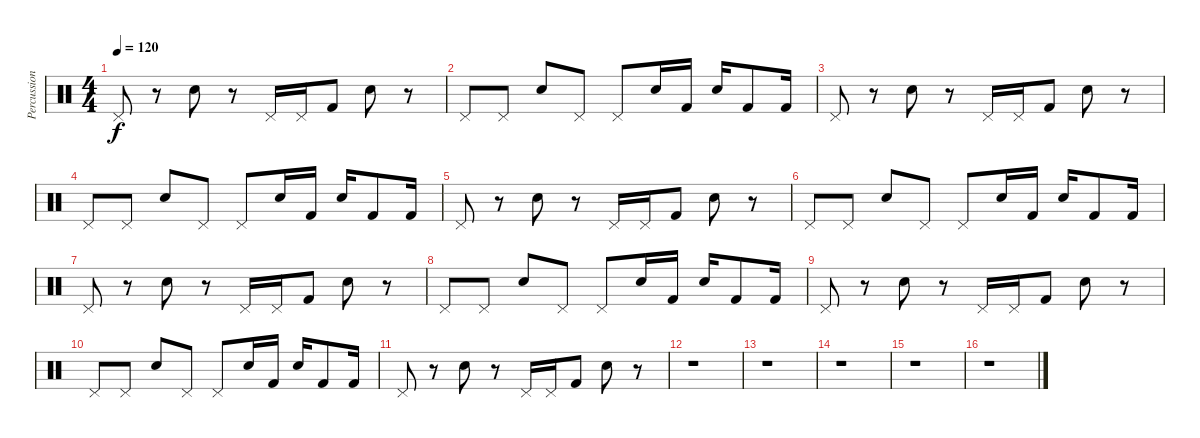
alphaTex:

\track ("Percussion" "Percussion") {instrument percussion}
\staff {score}
\articulation defaults
\ts (4 4)
\tempo 120
\clef neutral
\ks c "Pedal Hi-Hat (hit)".8{dy f}
r.8 "Electric Snare (hit)".8 r.8 "Pedal Hi-Hat (hit)".16 "Pedal Hi-Hat (hit)".16 "Kick (hit) 2".8 "Electric Snare (hit)".8 r.8 |
"Pedal Hi-Hat (hit)".8 "Pedal Hi-Hat (hit)".8 "Electric Snare (hit)".8 "Pedal Hi-Hat (hit)".8 "Pedal Hi-Hat (hit)".8 "Electric Snare (hit)".16 "Kick (hit) 2".16 "Electric Snare (hit)".16 "Kick (hit) 2".8 "Kick (hit) 2".16 |
"Pedal Hi-Hat (hit)".8 r.8 "Electric Snare (hit)".8 r.8 "Pedal Hi-Hat (hit)".16 "Pedal Hi-Hat (hit)".16 "Kick (hit) 2".8 "Electric Snare (hit)".8 r.8 |
"Pedal Hi-Hat (hit)".8 "Pedal Hi-Hat (hit)".8 "Electric Snare (hit)".8 "Pedal Hi-Hat (hit)".8 "Pedal Hi-Hat (hit)".8 "Electric Snare (hit)".16 "Kick (hit) 2".16 "Electric Snare (hit)".16 "Kick (hit) 2".8 "Kick (hit) 2".16 |
"Pedal Hi-Hat (hit)".8 r.8 "Electric Snare (hit)".8 r.8 "Pedal Hi-Hat (hit)".16 "Pedal Hi-Hat (hit)".16 "Kick (hit) 2".8 "Electric Snare (hit)".8 r.8 |
"Pedal Hi-Hat (hit)".8 "Pedal Hi-Hat (hit)".8 "Electric Snare (hit)".8 "Pedal Hi-Hat (hit)".8 "Pedal Hi-Hat (hit)".8 "Electric Snare (hit)".16 "Kick (hit) 2".16 "Electric Snare (hit)".16 "Kick (hit) 2".8 "Kick (hit) 2".16 |
"Pedal Hi-Hat (hit)".8 r.8 "Electric Snare (hit)".8 r.8 "Pedal Hi-Hat (hit)".16 "Pedal Hi-Hat (hit)".16 "Kick (hit) 2".8 "Electric Snare (hit)".8 r.8 |
"Pedal Hi-Hat (hit)".8 "Pedal Hi-Hat (hit)".8 "Electric Snare (hit)".8 "Pedal Hi-Hat (hit)".8 "Pedal Hi-Hat (hit)".8 "Electric Snare (hit)".16 "Kick (hit) 2".16 "Electric Snare (hit)".16 "Kick (hit) 2".8 "Kick (hit) 2".16 |
"Pedal Hi-Hat (hit)".8 r.8 "Electric Snare (hit)".8 r.8 "Pedal Hi-Hat (hit)".16 "Pedal Hi-Hat (hit)".16 "Kick (hit) 2".8 "Electric Snare (hit)".8 r.8 |
"Pedal Hi-Hat (hit)".8 "Pedal Hi-Hat (hit)".8 "Electric Snare (hit)".8 "Pedal Hi-Hat (hit)".8 "Pedal Hi-Hat (hit)".8 "Electric Snare (hit)".16 "Kick (hit) 2".16 "Electric Snare (hit)".16 "Kick (hit) 2".8 "Kick (hit) 2".16 |
"Pedal Hi-Hat (hit)".8 r.8 "Electric Snare (hit)".8 r.8 "Pedal Hi-Hat (hit)".16 "Pedal Hi-Hat (hit)".16 "Kick (hit) 2".8 "Electric Snare (hit)".8 r.8 |
r.1 |
r.1 |
r.1 |
r.1 |
r.1
